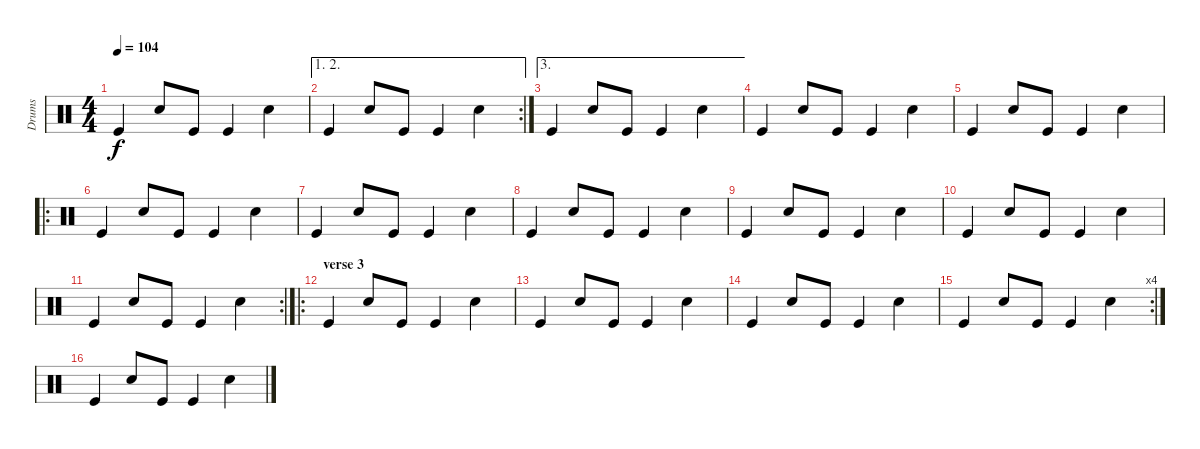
\track ("Drums" "Drums") {instrument percussion}
\staff {score}
\articulation defaults
\ts (4 4)
\tempo 104
\clef neutral
\ks c "Kick (hit)".4{dy f} "Snare (hit) 2".8 "Kick (hit)".8 "Kick (hit)".4 "Snare (hit) 2".4
|
\ae (1 2)
\rc 2 "Kick (hit)".4 "Snare (hit) 2".8 "Kick (hit)".8 "Kick (hit)".4 "Snare (hit) 2".4
|
\ae 3 "Kick (hit)".4 "Snare (hit) 2".8 "Kick (hit)".8 "Kick (hit)".4 "Snare (hit) 2".4
|
"Kick (hit)".4 "Snare (hit) 2".8 "Kick (hit)".8 "Kick (hit)".4 "Snare (hit) 2".4 |
"Kick (hit)".4 "Snare (hit) 2".8 "Kick (hit)".8 "Kick (hit)".4 "Snare (hit) 2".4 |
\ro "Kick (hit)".4 "Snare (hit) 2".8 "Kick (hit)".8 "Kick (hit)".4 "Snare (hit) 2".4
|
"Kick (hit)".4 "Snare (hit) 2".8 "Kick (hit)".8 "Kick (hit)".4 "Snare (hit) 2".4 |
"Kick (hit)".4 "Snare (hit) 2".8 "Kick (hit)".8 "Kick (hit)".4 "Snare (hit) 2".4 |
"Kick (hit)".4 "Snare (hit) 2".8 "Kick (hit)".8 "Kick (hit)".4 "Snare (hit) 2".4 |
"Kick (hit)".4 "Snare (hit) 2".8 "Kick (hit)".8 "Kick (hit)".4 "Snare (hit) 2".4 |
\rc 2 "Kick (hit)".4 "Snare (hit) 2".8 "Kick (hit)".8 "Kick (hit)".4 "Snare (hit) 2".4
|
\ro
\section ("" "verse 3")
"Kick (hit)".4 "Snare (hit) 2".8 "Kick (hit)".8 "Kick (hit)".4 "Snare (hit) 2".4 |
"Kick (hit)".4 "Snare (hit) 2".8 "Kick (hit)".8 "Kick (hit)".4 "Snare (hit) 2".4 |
"Kick (hit)".4 "Snare (hit) 2".8 "Kick (hit)".8 "Kick (hit)".4 "Snare (hit) 2".4 |
\rc 4 "Kick (hit)".4 "Snare (hit) 2".8 "Kick (hit)".8 "Kick (hit)".4 "Snare (hit) 2".4
|
"Kick (hit)".4 "Snare (hit) 2".8 "Kick (hit)".8 "Kick (hit)".4 "Snare (hit) 2".4
